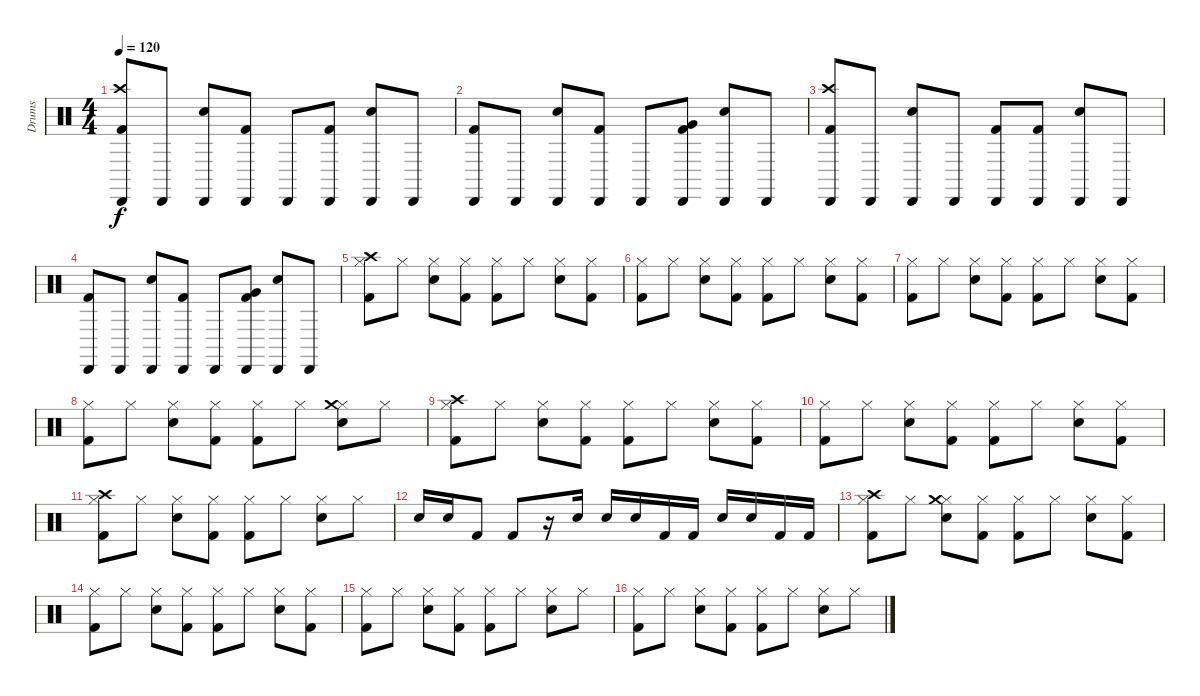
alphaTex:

\track ("Drums" "Drums") {instrument percussion}
\staff {score}
\articulation defaults
\ts (4 4)
\tempo 120
\clef neutral
\ks c
("Cabasa (hit)" "Crash high (hit)" "Kick (hit) 2").8{dy f} "Cabasa (hit)".8 ("Cabasa (hit)" "Electric Snare (hit)").8 ("Cabasa (hit)" "Kick (hit) 2").8 "Cabasa (hit)".8 ("Cabasa (hit)" "Kick (hit) 2").8 ("Cabasa (hit)" "Electric Snare (hit)").8 "Cabasa (hit)".8 |
("Cabasa (hit)" "Kick (hit) 2").8 "Cabasa (hit)".8 ("Cabasa (hit)" "Electric Snare (hit)").8 ("Cabasa (hit)" "Kick (hit) 2").8 "Cabasa (hit)".8 ("Cabasa (hit)" "Very Low Tom (hit)" "Kick (hit) 2").8 ("Cabasa (hit)" "Electric Snare (hit)").8 "Cabasa (hit)".8 |
("Cabasa (hit)" "Crash high (hit)" "Kick (hit) 2").8 "Cabasa (hit)".8 ("Cabasa (hit)" "Electric Snare (hit)").8 "Cabasa (hit)".8 ("Cabasa (hit)" "Kick (hit) 2").8 ("Cabasa (hit)" "Kick (hit) 2").8 ("Cabasa (hit)" "Electric Snare (hit)").8 "Cabasa (hit)".8 |
("Cabasa (hit)" "Kick (hit) 2").8 "Cabasa (hit)".8 ("Cabasa (hit)" "Electric Snare (hit)").8 ("Cabasa (hit)" "Kick (hit) 2").8 "Cabasa (hit)".8 ("Cabasa (hit)" "Very Low Tom (hit)" "Kick (hit) 2").8 ("Cabasa (hit)" "Electric Snare (hit)").8 "Cabasa (hit)".8 |
("Hi-Hat (closed)" "Crash high (hit)" "Kick (hit) 2").8 "Hi-Hat (closed)".8 ("Hi-Hat (closed)" "Electric Snare (hit)").8 ("Hi-Hat (closed)" "Kick (hit) 2").8 ("Hi-Hat (closed)" "Kick (hit) 2").8 "Hi-Hat (closed)".8 ("Hi-Hat (closed)" "Electric Snare (hit)").8 ("Hi-Hat (closed)" "Kick (hit) 2").8 |
("Hi-Hat (closed)" "Kick (hit) 2").8 "Hi-Hat (closed)".8 ("Hi-Hat (closed)" "Electric Snare (hit)").8 ("Hi-Hat (closed)" "Kick (hit) 2").8 ("Hi-Hat (closed)" "Kick (hit) 2").8 "Hi-Hat (closed)".8 ("Hi-Hat (closed)" "Electric Snare (hit)").8 ("Hi-Hat (closed)" "Kick (hit) 2").8 |
("Hi-Hat (closed)" "Kick (hit) 2").8 "Hi-Hat (closed)".8 ("Hi-Hat (closed)" "Electric Snare (hit)").8 ("Hi-Hat (closed)" "Kick (hit) 2").8 ("Hi-Hat (closed)" "Kick (hit) 2").8 "Hi-Hat (closed)".8 ("Hi-Hat (closed)" "Electric Snare (hit)").8 ("Hi-Hat (closed)" "Kick (hit) 2").8 |
("Hi-Hat (closed)" "Kick (hit) 2").8 "Hi-Hat (closed)".8 ("Hi-Hat (closed)" "Electric Snare (hit)").8 ("Hi-Hat (closed)" "Kick (hit) 2").8 ("Hi-Hat (closed)" "Kick (hit) 2").8 "Hi-Hat (closed)".8 ("Hi-Hat (closed)" "Crash medium (hit)" "Electric Snare (hit)").8 "Hi-Hat (closed)".8 |
("Hi-Hat (closed)" "Crash high (hit)" "Kick (hit) 2").8 "Hi-Hat (closed)".8 ("Hi-Hat (closed)" "Electric Snare (hit)").8 ("Hi-Hat (closed)" "Kick (hit) 2").8 ("Hi-Hat (closed)" "Kick (hit) 2").8 "Hi-Hat (closed)".8 ("Hi-Hat (closed)" "Electric Snare (hit)").8 ("Hi-Hat (closed)" "Kick (hit) 2").8 |
("Hi-Hat (closed)" "Kick (hit) 2").8 "Hi-Hat (closed)".8 ("Hi-Hat (closed)" "Electric Snare (hit)").8 ("Hi-Hat (closed)" "Kick (hit) 2").8 ("Hi-Hat (closed)" "Kick (hit) 2").8 "Hi-Hat (closed)".8 ("Hi-Hat (closed)" "Electric Snare (hit)").8 ("Hi-Hat (closed)" "Kick (hit) 2").8 |
("Hi-Hat (closed)" "Crash high (hit)" "Kick (hit) 2").8 "Hi-Hat (closed)".8 ("Hi-Hat (closed)" "Electric Snare (hit)").8 ("Hi-Hat (closed)" "Kick (hit) 2").8 ("Hi-Hat (closed)" "Kick (hit) 2").8 "Hi-Hat (closed)".8 ("Hi-Hat (closed)" "Electric Snare (hit)").8 "Hi-Hat (closed)".8 |
"Electric Snare (hit)".16 "Electric Snare (hit)".16 "Kick (hit) 2".8 "Kick (hit) 2".8 r.16 "Electric Snare (hit)".16 "Electric Snare (hit)".16 "Electric Snare (hit)".16 "Kick (hit) 2".16 "Kick (hit) 2".16 "Electric Snare (hit)".16 "Electric Snare (hit)".16 "Kick (hit) 2".16 "Kick (hit) 2".16 |
("Hi-Hat (closed)" "Crash high (hit)" "Kick (hit) 2").8 "Hi-Hat (closed)".8 ("Hi-Hat (closed)" "Crash medium (hit)" "Electric Snare (hit)").8 ("Hi-Hat (closed)" "Kick (hit) 2").8 ("Hi-Hat (closed)" "Kick (hit) 2").8 "Hi-Hat (closed)".8 ("Hi-Hat (closed)" "Electric Snare (hit)").8 ("Hi-Hat (closed)" "Kick (hit) 2").8 |
("Hi-Hat (closed)" "Kick (hit) 2").8 "Hi-Hat (closed)".8 ("Hi-Hat (closed)" "Electric Snare (hit)").8 ("Hi-Hat (closed)" "Kick (hit) 2").8 ("Hi-Hat (closed)" "Kick (hit) 2").8 "Hi-Hat (closed)".8 ("Hi-Hat (closed)" "Electric Snare (hit)").8 ("Hi-Hat (closed)" "Kick (hit) 2").8 |
("Hi-Hat (closed)" "Kick (hit) 2").8 "Hi-Hat (closed)".8 ("Hi-Hat (closed)" "Electric Snare (hit)").8 ("Hi-Hat (closed)" "Kick (hit) 2").8 ("Hi-Hat (closed)" "Kick (hit) 2").8 "Hi-Hat (closed)".8 ("Hi-Hat (closed)" "Electric Snare (hit)").8 "Hi-Hat (closed)".8 |
("Hi-Hat (closed)" "Kick (hit) 2").8 "Hi-Hat (closed)".8 ("Hi-Hat (closed)" "Electric Snare (hit)").8 ("Hi-Hat (closed)" "Kick (hit) 2").8 ("Hi-Hat (closed)" "Kick (hit) 2").8 "Hi-Hat (closed)".8 ("Hi-Hat (closed)" "Electric Snare (hit)").8 "Hi-Hat (closed)".8
